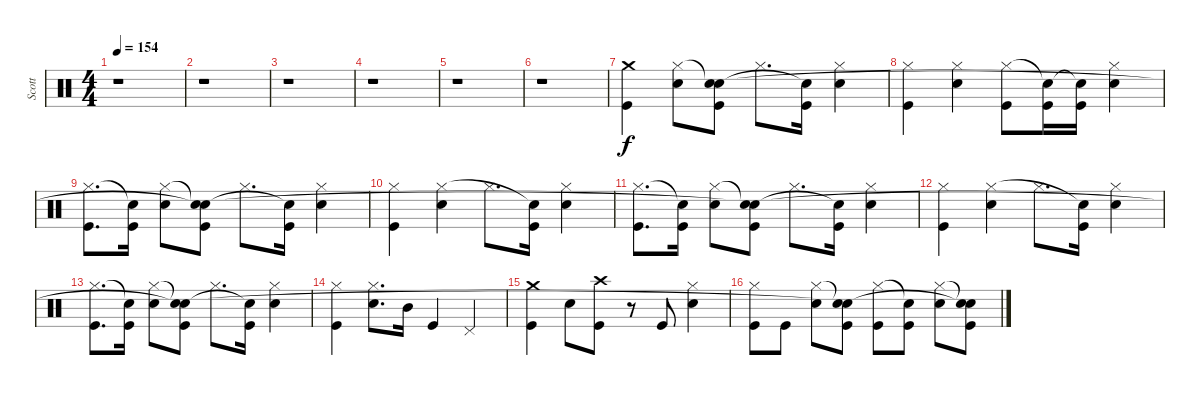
\track ("Scott" "Scott") {instrument percussion}
\staff {score}
\articulation defaults
\ts (4 4)
\tempo 154
\clef neutral
\ks c
r.1{dy f} |
r.1 |
r.1 |
r.1 |
r.1 |
r.1 |
("Kick (hit)" "Crash medium (hit)").4 ("Snare (hit) 2" "Hi-Hat (closed)").8 ("Kick (hit)" "Snare (hit)"{t} "Snare (hit)").8 "Hi-Hat (closed)".8{d} ("Kick (hit)" "Snare (hit)"{t}).16 ("Snare (hit) 2" "Hi-Hat (closed)").4 |
("Kick (hit)" "Hi-Hat (closed)").4 ("Snare (hit) 2" "Hi-Hat (closed)").4 ("Kick (hit)" "Hi-Hat (closed)").8 ("Kick (hit)" "Snare (hit)"{t}).16 ("Kick (hit)" "Snare (hit)"{t}).16 ("Snare (hit) 2" "Hi-Hat (closed)").4 |
("Kick (hit)" "Hi-Hat (closed)").8{d} ("Kick (hit)" "Snare (hit)"{t}).16 ("Snare (hit) 2" "Hi-Hat (closed)").8 ("Kick (hit)" "Snare (hit)"{t} "Snare (hit)"{t}).8 "Hi-Hat (closed)".8{d} ("Kick (hit)" "Snare (hit)"{t}).16 ("Snare (hit) 2" "Hi-Hat (closed)").4 |
("Kick (hit)" "Hi-Hat (closed)").4 ("Snare (hit) 2" "Hi-Hat (closed)").4 "Hi-Hat (closed)".8{d} ("Kick (hit)" "Snare (hit)"{t}).16 ("Snare (hit) 2" "Hi-Hat (closed)").4 |
("Kick (hit)" "Hi-Hat (closed)").8{d} ("Kick (hit)" "Snare (hit)"{t}).16 ("Snare (hit) 2" "Hi-Hat (closed)").8 ("Kick (hit)" "Snare (hit)"{t} "Snare (hit)"{t}).8 "Hi-Hat (closed)".8{d} ("Kick (hit)" "Snare (hit)"{t}).16 ("Snare (hit) 2" "Hi-Hat (closed)").4 |
("Kick (hit)" "Hi-Hat (closed)").4 ("Snare (hit) 2" "Hi-Hat (closed)").4 "Hi-Hat (closed)".8{d} ("Kick (hit)" "Snare (hit)"{t}).16 ("Snare (hit) 2" "Hi-Hat (closed)").4 |
("Kick (hit)" "Hi-Hat (closed)").8{d} ("Kick (hit)" "Snare (hit)"{t}).16 ("Snare (hit) 2" "Hi-Hat (closed)").8 ("Kick (hit)" "Snare (hit)"{t} "Snare (hit)"{t}).8 "Hi-Hat (closed)".8{d} ("Kick (hit)" "Snare (hit)"{t}).16 ("Snare (hit) 2" "Hi-Hat (closed)").4 |
("Kick (hit)" "Hi-Hat (closed)").4 ("Snare (hit) 2" "Hi-Hat (closed)").8{d} "Mid Tom (hit)".16 "Kick (hit)".4 "Pedal Hi-Hat (hit)".4 |
("Kick (hit)" "Crash medium (hit)").4 "Snare (hit) 2".8 ("Kick (hit)" "Crash high (hit)").8 r.8 "Kick (hit)".8 ("Snare (hit) 2" "Hi-Hat (closed)").4 |
("Kick (hit)" "Hi-Hat (closed)").8 "Kick (hit)".8 ("Snare (hit) 2" "Hi-Hat (closed)").8 ("Kick (hit)" "Snare (hit)"{t} "Snare (hit)"{t}).8 ("Kick (hit)" "Hi-Hat (closed)").8 ("Kick (hit)" "Snare (hit)"{t}).8 ("Snare (hit) 2" "Hi-Hat (closed)").8 ("Kick (hit)" "Snare (hit)"{t} "Snare (hit)"{t}).8
